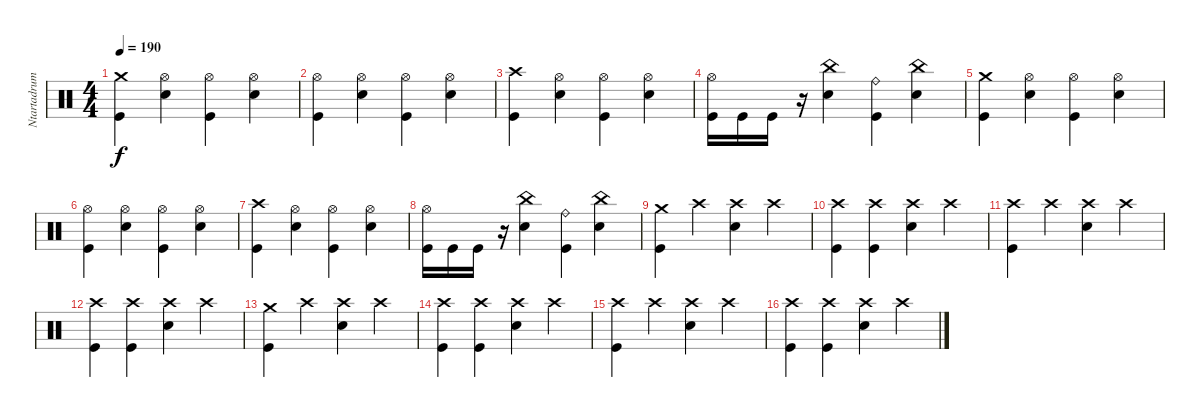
\track ("Ntartadrum" "Ntartadrum") {instrument percussion}
\staff {score}
\articulation defaults
\ts (4 4)
\tempo 190
\clef neutral
\ks c
("Kick (hit)" "Crash medium (hit)").4{dy f} ("Electric Snare (hit)" "Hi-Hat (open)").4 ("Kick (hit)" "Hi-Hat (open)").4 ("Electric Snare (hit)" "Hi-Hat (open)").4 |
("Kick (hit)" "Hi-Hat (open)").4 ("Electric Snare (hit)" "Hi-Hat (open)").4 ("Kick (hit)" "Hi-Hat (open)").4 ("Electric Snare (hit)" "Hi-Hat (open)").4 |
("Kick (hit)" "Crash high (hit)").4 ("Electric Snare (hit)" "Hi-Hat (open)").4 ("Kick (hit)" "Hi-Hat (open)").4 ("Electric Snare (hit)" "Hi-Hat (open)").4 |
("Kick (hit)" "Hi-Hat (open)").16 "Kick (hit)".16 "Kick (hit)".16 r.16 ("Electric Snare (hit)" "China (hit)").4 ("Kick (hit)" "Ride (bell)").4 ("Electric Snare (hit)" "China (hit)").4 |
("Kick (hit)" "Crash medium (hit)").4 ("Electric Snare (hit)" "Hi-Hat (open)").4 ("Kick (hit)" "Hi-Hat (open)").4 ("Electric Snare (hit)" "Hi-Hat (open)").4 |
("Kick (hit)" "Hi-Hat (open)").4 ("Electric Snare (hit)" "Hi-Hat (open)").4 ("Kick (hit)" "Hi-Hat (open)").4 ("Electric Snare (hit)" "Hi-Hat (open)").4 |
("Kick (hit)" "Crash high (hit)").4 ("Electric Snare (hit)" "Hi-Hat (open)").4 ("Kick (hit)" "Hi-Hat (open)").4 ("Electric Snare (hit)" "Hi-Hat (open)").4 |
("Kick (hit)" "Hi-Hat (open)").16 "Kick (hit)".16 "Kick (hit)".16 r.16 ("Electric Snare (hit)" "China (hit)").4 ("Kick (hit)" "Ride (bell)").4 ("Electric Snare (hit)" "China (hit)").4 |
("Kick (hit)" "Crash medium (hit)").4 "Crash high (hit)".4 ("Electric Snare (hit)" "Crash high (hit)").4 "Crash high (hit)".4 |
("Kick (hit)" "Crash high (hit)").4 ("Kick (hit)" "Crash high (hit)").4 ("Electric Snare (hit)" "Crash high (hit)").4 "Crash high (hit)".4 |
("Kick (hit)" "Crash high (hit)").4 "Crash high (hit)".4 ("Electric Snare (hit)" "Crash high (hit)").4 "Crash high (hit)".4 |
("Kick (hit)" "Crash high (hit)").4 ("Kick (hit)" "Crash high (hit)").4 ("Electric Snare (hit)" "Crash high (hit)").4 "Crash high (hit)".4 |
("Kick (hit)" "Crash medium (hit)").4 "Crash high (hit)".4 ("Electric Snare (hit)" "Crash high (hit)").4 "Crash high (hit)".4 |
("Kick (hit)" "Crash high (hit)").4 ("Kick (hit)" "Crash high (hit)").4 ("Electric Snare (hit)" "Crash high (hit)").4 "Crash high (hit)".4 |
("Kick (hit)" "Crash high (hit)").4 "Crash high (hit)".4 ("Electric Snare (hit)" "Crash high (hit)").4 "Crash high (hit)".4 |
("Kick (hit)" "Crash high (hit)").4 ("Kick (hit)" "Crash high (hit)").4 ("Electric Snare (hit)" "Crash high (hit)").4 "Crash high (hit)".4
